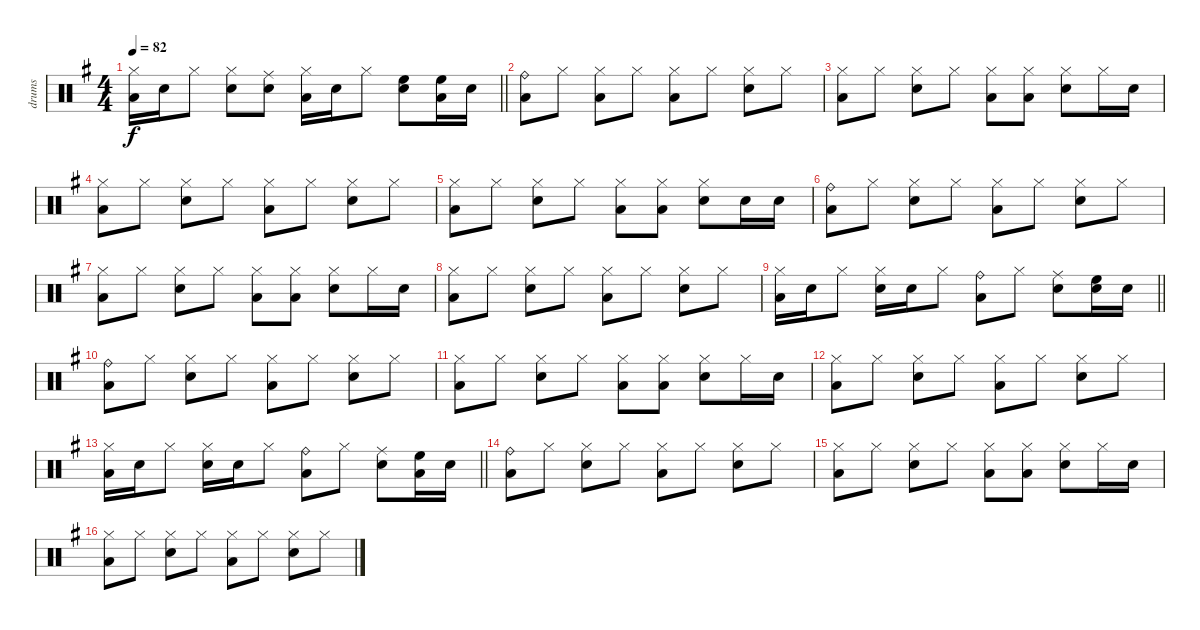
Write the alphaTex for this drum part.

\track ("drums" "drums") {instrument percussion}
\staff {score}
\articulation defaults
\ts (4 4)
\tempo 82
\clef neutral
\barLineRight lightlight
\ks g
("Hi-Hat (closed)" "Low Floor Tom (hit)").16{dy f} "Electric Snare (hit)".16 "Hi-Hat (closed)".8 ("Hi-Hat (closed)" "Electric Snare (hit)").8 ("Ride (middle)" "Electric Snare (hit)").8 ("Hi-Hat (closed)" "Low Floor Tom (hit)").16 "Electric Snare (hit)".16 "Hi-Hat (closed)".8 ("High Floor Tom (hit)" "Electric Snare (hit)").8 ("High Floor Tom (hit)" "Low Floor Tom (hit)").16 "Electric Snare (hit)".16 |
("Ride (bell)" "Low Floor Tom (hit)").8 "Hi-Hat (closed)".8 ("Hi-Hat (closed)" "Low Floor Tom (hit)").8 "Hi-Hat (closed)".8 ("Hi-Hat (closed)" "Low Floor Tom (hit)").8 "Hi-Hat (closed)".8 ("Hi-Hat (closed)" "Electric Snare (hit)").8 "Hi-Hat (closed)".8 |
("Hi-Hat (closed)" "Low Floor Tom (hit)").8 "Hi-Hat (closed)".8 ("Hi-Hat (closed)" "Electric Snare (hit)").8 "Hi-Hat (closed)".8 ("Hi-Hat (closed)" "Low Floor Tom (hit)").8 ("Hi-Hat (closed)" "Low Floor Tom (hit)").8 ("Hi-Hat (closed)" "Electric Snare (hit)").8 "Hi-Hat (closed)".16 "Electric Snare (hit)".16 |
("Hi-Hat (closed)" "Low Floor Tom (hit)").8 "Hi-Hat (closed)".8 ("Hi-Hat (closed)" "Electric Snare (hit)").8 "Hi-Hat (closed)".8 ("Hi-Hat (closed)" "Low Floor Tom (hit)").8 "Hi-Hat (closed)".8 ("Hi-Hat (closed)" "Electric Snare (hit)").8 "Hi-Hat (closed)".8 |
("Hi-Hat (closed)" "Low Floor Tom (hit)").8 "Hi-Hat (closed)".8 ("Hi-Hat (closed)" "Electric Snare (hit)").8 "Hi-Hat (closed)".8 ("Hi-Hat (closed)" "Low Floor Tom (hit)").8 ("Hi-Hat (closed)" "Low Floor Tom (hit)").8 ("Hi-Hat (closed)" "Electric Snare (hit)").8 "Electric Snare (hit)".16 "Electric Snare (hit)".16 |
("Ride (bell)" "Low Floor Tom (hit)").8 "Hi-Hat (closed)".8 ("Hi-Hat (closed)" "Electric Snare (hit)").8 "Hi-Hat (closed)".8 ("Hi-Hat (closed)" "Low Floor Tom (hit)").8 "Hi-Hat (closed)".8 ("Hi-Hat (closed)" "Electric Snare (hit)").8 "Hi-Hat (closed)".8 |
("Hi-Hat (closed)" "Low Floor Tom (hit)").8 "Hi-Hat (closed)".8 ("Hi-Hat (closed)" "Electric Snare (hit)").8 "Hi-Hat (closed)".8 ("Hi-Hat (closed)" "Low Floor Tom (hit)").8 ("Hi-Hat (closed)" "Low Floor Tom (hit)").8 ("Hi-Hat (closed)" "Electric Snare (hit)").8 "Hi-Hat (closed)".16 "Electric Snare (hit)".16 |
("Hi-Hat (closed)" "Low Floor Tom (hit)").8 "Hi-Hat (closed)".8 ("Hi-Hat (closed)" "Electric Snare (hit)").8 "Hi-Hat (closed)".8 ("Hi-Hat (closed)" "Low Floor Tom (hit)").8 "Hi-Hat (closed)".8 ("Hi-Hat (closed)" "Electric Snare (hit)").8 "Hi-Hat (closed)".8 |
\barLineRight lightlight
("Hi-Hat (closed)" "Low Floor Tom (hit)").16 "Electric Snare (hit)".16 "Hi-Hat (closed)".8 ("Hi-Hat (closed)" "Electric Snare (hit)").16 "Electric Snare (hit)".16 "Hi-Hat (closed)".8 ("Ride (bell)" "Low Floor Tom (hit)").8 "Hi-Hat (closed)".8 ("Ride (middle)" "Electric Snare (hit)").8 ("High Floor Tom (hit)" "Electric Snare (hit)").16 "Electric Snare (hit)".16 |
("Ride (bell)" "Low Floor Tom (hit)").8 "Hi-Hat (closed)".8 ("Hi-Hat (closed)" "Electric Snare (hit)").8 "Hi-Hat (closed)".8 ("Hi-Hat (closed)" "Low Floor Tom (hit)").8 "Hi-Hat (closed)".8 ("Hi-Hat (closed)" "Electric Snare (hit)").8 "Hi-Hat (closed)".8 |
("Hi-Hat (closed)" "Low Floor Tom (hit)").8 "Hi-Hat (closed)".8 ("Hi-Hat (closed)" "Electric Snare (hit)").8 "Hi-Hat (closed)".8 ("Hi-Hat (closed)" "Low Floor Tom (hit)").8 ("Hi-Hat (closed)" "Low Floor Tom (hit)").8 ("Hi-Hat (closed)" "Electric Snare (hit)").8 "Hi-Hat (closed)".16 "Electric Snare (hit)".16 |
("Hi-Hat (closed)" "Low Floor Tom (hit)").8 "Hi-Hat (closed)".8 ("Hi-Hat (closed)" "Electric Snare (hit)").8 "Hi-Hat (closed)".8 ("Hi-Hat (closed)" "Low Floor Tom (hit)").8 "Hi-Hat (closed)".8 ("Hi-Hat (closed)" "Electric Snare (hit)").8 "Hi-Hat (closed)".8 |
\barLineRight lightlight
("Hi-Hat (closed)" "Low Floor Tom (hit)").16 "Electric Snare (hit)".16 "Hi-Hat (closed)".8 ("Hi-Hat (closed)" "Electric Snare (hit)").16 "Electric Snare (hit)".16 "Hi-Hat (closed)".8 ("Ride (bell)" "Low Floor Tom (hit)").8 "Hi-Hat (closed)".8 ("Ride (middle)" "Electric Snare (hit)").8 ("High Floor Tom (hit)" "Low Floor Tom (hit)").16 "Electric Snare (hit)".16 |
("Ride (bell)" "Low Floor Tom (hit)").8 "Hi-Hat (closed)".8 ("Hi-Hat (closed)" "Electric Snare (hit)").8 "Hi-Hat (closed)".8 ("Hi-Hat (closed)" "Low Floor Tom (hit)").8 "Hi-Hat (closed)".8 ("Hi-Hat (closed)" "Electric Snare (hit)").8 "Hi-Hat (closed)".8 |
("Hi-Hat (closed)" "Low Floor Tom (hit)").8 "Hi-Hat (closed)".8 ("Hi-Hat (closed)" "Electric Snare (hit)").8 "Hi-Hat (closed)".8 ("Hi-Hat (closed)" "Low Floor Tom (hit)").8 ("Hi-Hat (closed)" "Low Floor Tom (hit)").8 ("Hi-Hat (closed)" "Electric Snare (hit)").8 "Hi-Hat (closed)".16 "Electric Snare (hit)".16 |
("Hi-Hat (closed)" "Low Floor Tom (hit)").8 "Hi-Hat (closed)".8 ("Hi-Hat (closed)" "Electric Snare (hit)").8 "Hi-Hat (closed)".8 ("Hi-Hat (closed)" "Low Floor Tom (hit)").8 "Hi-Hat (closed)".8 ("Hi-Hat (closed)" "Electric Snare (hit)").8 "Hi-Hat (closed)".8
